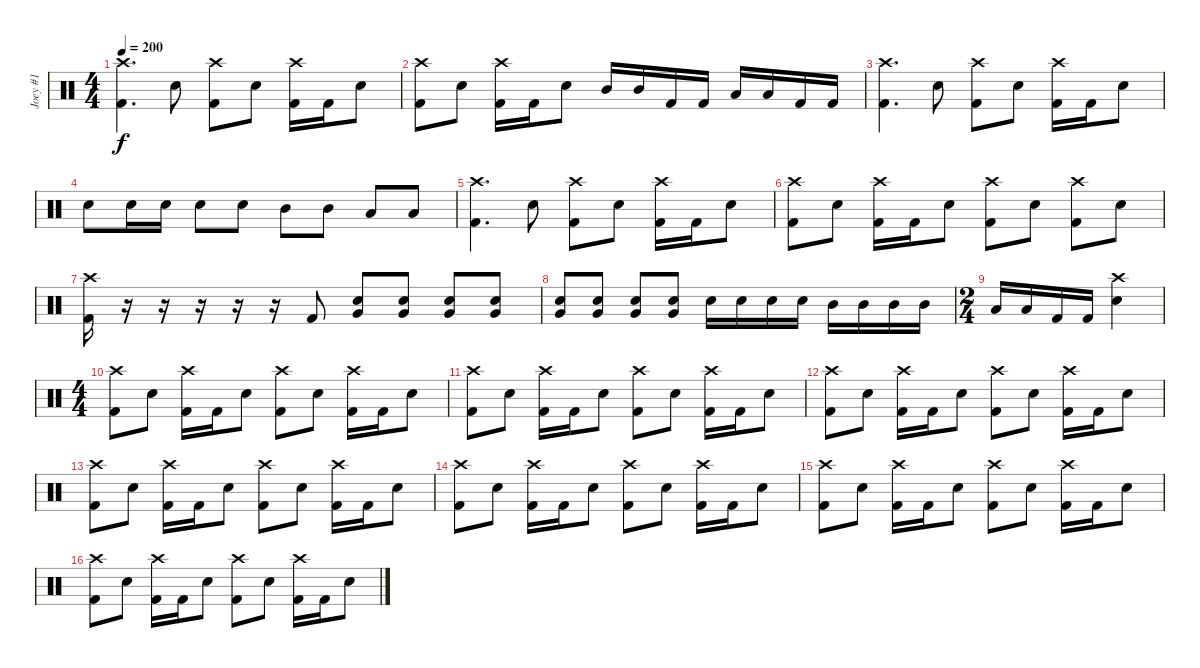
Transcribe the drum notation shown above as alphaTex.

\track ("Joey #1" "Joey #1") {instrument percussion}
\staff {score}
\articulation defaults
\ts (4 4)
\tempo 200
\clef neutral
\ks c
("Crash high (hit)" "Kick (hit) 2").4{d dy f} "Electric Snare (hit)".8 ("Crash high (hit)" "Kick (hit) 2").8 "Electric Snare (hit)".8 ("Crash high (hit)" "Kick (hit) 2").16 "Kick (hit) 2".16 "Electric Snare (hit)".8 |
("Crash high (hit)" "Kick (hit) 2").8 "Electric Snare (hit)".8 ("Crash high (hit)" "Kick (hit) 2").16 "Kick (hit) 2".16 "Electric Snare (hit)".8 "Mid Tom (hit)".16 "Mid Tom (hit)".16 "Kick (hit) 2".16 "Kick (hit) 2".16 "Low Tom (hit)".16 "Low Tom (hit)".16 "Kick (hit) 2".16 "Kick (hit) 2".16 |
("Crash high (hit)" "Kick (hit) 2").4{d} "Electric Snare (hit)".8 ("Crash high (hit)" "Kick (hit) 2").8 "Electric Snare (hit)".8 ("Crash high (hit)" "Kick (hit) 2").16 "Kick (hit) 2".16 "Electric Snare (hit)".8 |
"Electric Snare (hit)".8 "Electric Snare (hit)".16 "Electric Snare (hit)".16 "Electric Snare (hit)".8 "Electric Snare (hit)".8 "Mid Tom (hit)".8 "Mid Tom (hit)".8 "Low Tom (hit)".8 "Low Tom (hit)".8 |
("Crash high (hit)" "Kick (hit) 2").4{d} "Electric Snare (hit)".8 ("Crash high (hit)" "Kick (hit) 2").8 "Electric Snare (hit)".8 ("Crash high (hit)" "Kick (hit) 2").16 "Kick (hit) 2".16 "Electric Snare (hit)".8 |
("Crash high (hit)" "Kick (hit) 2").8 "Electric Snare (hit)".8 ("Crash high (hit)" "Kick (hit) 2").16 "Kick (hit) 2".16 "Electric Snare (hit)".8 ("Crash high (hit)" "Kick (hit) 2").8 "Electric Snare (hit)".8 ("Crash high (hit)" "Kick (hit) 2").8 "Electric Snare (hit)".8 |
("Crash high (hit)" "Kick (hit) 2").16 r.16 r.16 r.16 r.16 r.16 "Kick (hit) 2".8 ("Very Low Tom (hit)" "Electric Snare (hit)").8 ("Very Low Tom (hit)" "Electric Snare (hit)").8 ("Very Low Tom (hit)" "Electric Snare (hit)").8 ("Very Low Tom (hit)" "Electric Snare (hit)").8 |
("Very Low Tom (hit)" "Electric Snare (hit)").8 ("Very Low Tom (hit)" "Electric Snare (hit)").8 ("Very Low Tom (hit)" "Electric Snare (hit)").8 ("Very Low Tom (hit)" "Electric Snare (hit)").8 "Electric Snare (hit)".16 "Electric Snare (hit)".16 "Electric Snare (hit)".16 "Electric Snare (hit)".16 "Mid Tom (hit)".16 "Mid Tom (hit)".16 "Mid Tom (hit)".16 "Mid Tom (hit)".16 |
\ts (2 4)
"Low Tom (hit)".16 "Low Tom (hit)".16 "Kick (hit) 2".16 "Kick (hit) 2".16 ("Crash high (hit)" "Electric Snare (hit)").4 |
\ts (4 4)
("Crash high (hit)" "Kick (hit) 2").8 "Electric Snare (hit)".8 ("Crash high (hit)" "Kick (hit) 2").16 "Kick (hit) 2".16 "Electric Snare (hit)".8 ("Crash high (hit)" "Kick (hit) 2").8 "Electric Snare (hit)".8 ("Crash high (hit)" "Kick (hit) 2").16 "Kick (hit) 2".16 "Electric Snare (hit)".8 |
("Crash high (hit)" "Kick (hit) 2").8 "Electric Snare (hit)".8 ("Crash high (hit)" "Kick (hit) 2").16 "Kick (hit) 2".16 "Electric Snare (hit)".8 ("Crash high (hit)" "Kick (hit) 2").8 "Electric Snare (hit)".8 ("Crash high (hit)" "Kick (hit) 2").16 "Kick (hit) 2".16 "Electric Snare (hit)".8 |
("Crash high (hit)" "Kick (hit) 2").8 "Electric Snare (hit)".8 ("Crash high (hit)" "Kick (hit) 2").16 "Kick (hit) 2".16 "Electric Snare (hit)".8 ("Crash high (hit)" "Kick (hit) 2").8 "Electric Snare (hit)".8 ("Crash high (hit)" "Kick (hit) 2").16 "Kick (hit) 2".16 "Electric Snare (hit)".8 |
("Crash high (hit)" "Kick (hit) 2").8 "Electric Snare (hit)".8 ("Crash high (hit)" "Kick (hit) 2").16 "Kick (hit) 2".16 "Electric Snare (hit)".8 ("Crash high (hit)" "Kick (hit) 2").8 "Electric Snare (hit)".8 ("Crash high (hit)" "Kick (hit) 2").16 "Kick (hit) 2".16 "Electric Snare (hit)".8 |
("Crash high (hit)" "Kick (hit) 2").8 "Electric Snare (hit)".8 ("Crash high (hit)" "Kick (hit) 2").16 "Kick (hit) 2".16 "Electric Snare (hit)".8 ("Crash high (hit)" "Kick (hit) 2").8 "Electric Snare (hit)".8 ("Crash high (hit)" "Kick (hit) 2").16 "Kick (hit) 2".16 "Electric Snare (hit)".8 |
("Crash high (hit)" "Kick (hit) 2").8 "Electric Snare (hit)".8 ("Crash high (hit)" "Kick (hit) 2").16 "Kick (hit) 2".16 "Electric Snare (hit)".8 ("Crash high (hit)" "Kick (hit) 2").8 "Electric Snare (hit)".8 ("Crash high (hit)" "Kick (hit) 2").16 "Kick (hit) 2".16 "Electric Snare (hit)".8 |
("Crash high (hit)" "Kick (hit) 2").8 "Electric Snare (hit)".8 ("Crash high (hit)" "Kick (hit) 2").16 "Kick (hit) 2".16 "Electric Snare (hit)".8 ("Crash high (hit)" "Kick (hit) 2").8 "Electric Snare (hit)".8 ("Crash high (hit)" "Kick (hit) 2").16 "Kick (hit) 2".16 "Electric Snare (hit)".8
